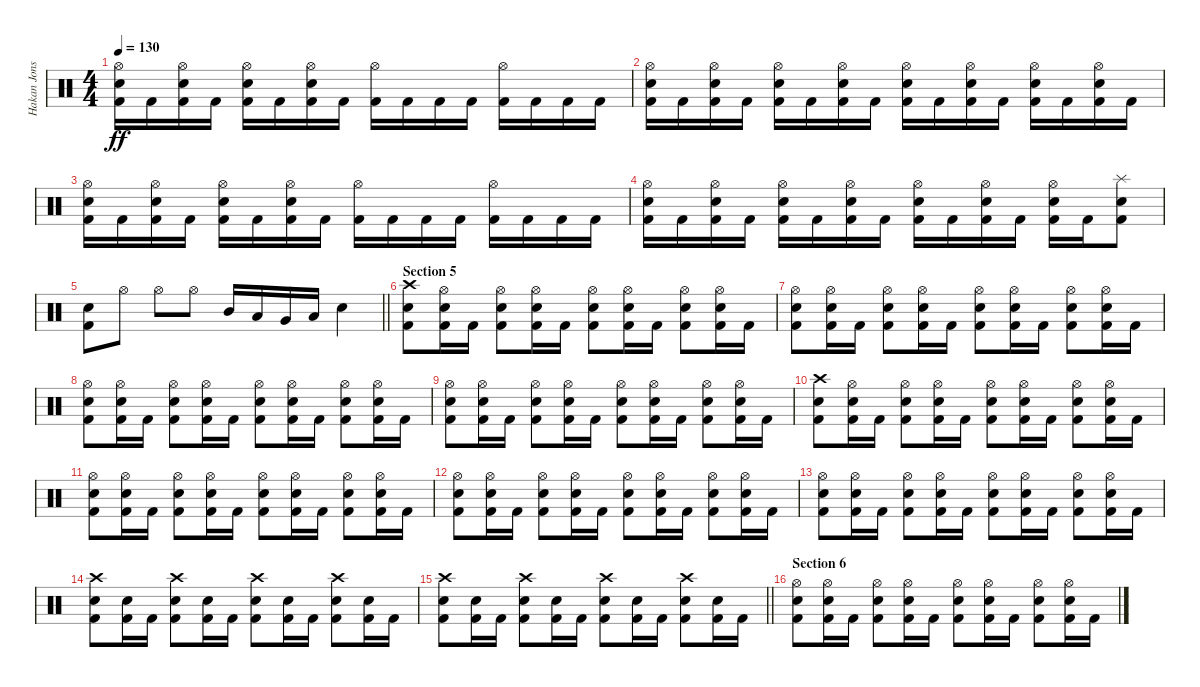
\track ("Hakan Jonsson" "Hakan Jons") {instrument percussion}
\staff {score}
\articulation defaults
\ts (4 4)
\tempo 130
\clef neutral
\ks c
("Hi-Hat (open)" "Electric Snare (hit)" "Kick (hit) 2").16{dy ff} "Kick (hit) 2".16 ("Hi-Hat (open)" "Electric Snare (hit)" "Kick (hit) 2").16 "Kick (hit) 2".16 ("Hi-Hat (open)" "Electric Snare (hit)" "Kick (hit) 2").16 "Kick (hit) 2".16 ("Hi-Hat (open)" "Electric Snare (hit)" "Kick (hit) 2").16 "Kick (hit) 2".16 ("Hi-Hat (open)" "Kick (hit) 2").16 "Kick (hit) 2".16 "Kick (hit) 2".16 "Kick (hit) 2".16 ("Hi-Hat (open)" "Kick (hit) 2").16 "Kick (hit) 2".16 "Kick (hit) 2".16 "Kick (hit) 2".16 |
("Hi-Hat (open)" "Electric Snare (hit)" "Kick (hit) 2").16 "Kick (hit) 2".16 ("Hi-Hat (open)" "Electric Snare (hit)" "Kick (hit) 2").16 "Kick (hit) 2".16 ("Hi-Hat (open)" "Electric Snare (hit)" "Kick (hit) 2").16 "Kick (hit) 2".16 ("Hi-Hat (open)" "Electric Snare (hit)" "Kick (hit) 2").16 "Kick (hit) 2".16 ("Hi-Hat (open)" "Electric Snare (hit)" "Kick (hit) 2").16 "Kick (hit) 2".16 ("Hi-Hat (open)" "Electric Snare (hit)" "Kick (hit) 2").16 "Kick (hit) 2".16 ("Hi-Hat (open)" "Electric Snare (hit)" "Kick (hit) 2").16 "Kick (hit) 2".16 ("Hi-Hat (open)" "Electric Snare (hit)" "Kick (hit) 2").16 "Kick (hit) 2".16 |
("Hi-Hat (open)" "Electric Snare (hit)" "Kick (hit) 2").16 "Kick (hit) 2".16 ("Hi-Hat (open)" "Electric Snare (hit)" "Kick (hit) 2").16 "Kick (hit) 2".16 ("Hi-Hat (open)" "Electric Snare (hit)" "Kick (hit) 2").16 "Kick (hit) 2".16 ("Hi-Hat (open)" "Electric Snare (hit)" "Kick (hit) 2").16 "Kick (hit) 2".16 ("Hi-Hat (open)" "Kick (hit) 2").16 "Kick (hit) 2".16 "Kick (hit) 2".16 "Kick (hit) 2".16 ("Hi-Hat (open)" "Kick (hit) 2").16 "Kick (hit) 2".16 "Kick (hit) 2".16 "Kick (hit) 2".16 |
("Hi-Hat (open)" "Electric Snare (hit)" "Kick (hit) 2").16 "Kick (hit) 2".16 ("Hi-Hat (open)" "Electric Snare (hit)" "Kick (hit) 2").16 "Kick (hit) 2".16 ("Hi-Hat (open)" "Electric Snare (hit)" "Kick (hit) 2").16 "Kick (hit) 2".16 ("Hi-Hat (open)" "Electric Snare (hit)" "Kick (hit) 2").16 "Kick (hit) 2".16 ("Hi-Hat (open)" "Electric Snare (hit)" "Kick (hit) 2").16 "Kick (hit) 2".16 ("Hi-Hat (open)" "Electric Snare (hit)" "Kick (hit) 2").16 "Kick (hit) 2".16 ("Hi-Hat (open)" "Electric Snare (hit)" "Kick (hit) 2").16 "Kick (hit) 2".16 ("Splash (hit)" "Electric Snare (hit)" "Kick (hit) 2").8 |
\barLineRight lightlight
("Electric Snare (hit)" "Kick (hit) 2").8 "Hi-Hat (open)".8 "Hi-Hat (open)".8 "Hi-Hat (open)".8 "Mid Tom (hit)".16 "Low Tom (hit)".16 "Very Low Tom (hit)".16 "Low Floor Tom (hit)".16 "Electric Snare (hit)".4 |
\section ("" "Section 5")
("Crash high (hit)" "Electric Snare (hit)" "Kick (hit) 2").8 ("Hi-Hat (open)" "Electric Snare (hit)" "Kick (hit) 2").16 "Kick (hit) 2".16 ("Hi-Hat (open)" "Electric Snare (hit)" "Kick (hit) 2").8 ("Hi-Hat (open)" "Electric Snare (hit)" "Kick (hit) 2").16 "Kick (hit) 2".16 ("Hi-Hat (open)" "Electric Snare (hit)" "Kick (hit) 2").8 ("Hi-Hat (open)" "Electric Snare (hit)" "Kick (hit) 2").16 "Kick (hit) 2".16 ("Hi-Hat (open)" "Electric Snare (hit)" "Kick (hit) 2").8 ("Hi-Hat (open)" "Electric Snare (hit)" "Kick (hit) 2").16 "Kick (hit) 2".16 |
("Hi-Hat (open)" "Electric Snare (hit)" "Kick (hit) 2").8 ("Hi-Hat (open)" "Electric Snare (hit)" "Kick (hit) 2").16 "Kick (hit) 2".16 ("Hi-Hat (open)" "Electric Snare (hit)" "Kick (hit) 2").8 ("Hi-Hat (open)" "Electric Snare (hit)" "Kick (hit) 2").16 "Kick (hit) 2".16 ("Hi-Hat (open)" "Electric Snare (hit)" "Kick (hit) 2").8 ("Hi-Hat (open)" "Electric Snare (hit)" "Kick (hit) 2").16 "Kick (hit) 2".16 ("Hi-Hat (open)" "Electric Snare (hit)" "Kick (hit) 2").8 ("Hi-Hat (open)" "Electric Snare (hit)" "Kick (hit) 2").16 "Kick (hit) 2".16 |
("Hi-Hat (open)" "Electric Snare (hit)" "Kick (hit) 2").8 ("Hi-Hat (open)" "Electric Snare (hit)" "Kick (hit) 2").16 "Kick (hit) 2".16 ("Hi-Hat (open)" "Electric Snare (hit)" "Kick (hit) 2").8 ("Hi-Hat (open)" "Electric Snare (hit)" "Kick (hit) 2").16 "Kick (hit) 2".16 ("Hi-Hat (open)" "Electric Snare (hit)" "Kick (hit) 2").8 ("Hi-Hat (open)" "Electric Snare (hit)" "Kick (hit) 2").16 "Kick (hit) 2".16 ("Hi-Hat (open)" "Electric Snare (hit)" "Kick (hit) 2").8 ("Hi-Hat (open)" "Electric Snare (hit)" "Kick (hit) 2").16 "Kick (hit) 2".16 |
("Hi-Hat (open)" "Electric Snare (hit)" "Kick (hit) 2").8 ("Hi-Hat (open)" "Electric Snare (hit)" "Kick (hit) 2").16 "Kick (hit) 2".16 ("Hi-Hat (open)" "Electric Snare (hit)" "Kick (hit) 2").8 ("Hi-Hat (open)" "Electric Snare (hit)" "Kick (hit) 2").16 "Kick (hit) 2".16 ("Hi-Hat (open)" "Electric Snare (hit)" "Kick (hit) 2").8 ("Hi-Hat (open)" "Electric Snare (hit)" "Kick (hit) 2").16 "Kick (hit) 2".16 ("Hi-Hat (open)" "Electric Snare (hit)" "Kick (hit) 2").8 ("Hi-Hat (open)" "Electric Snare (hit)" "Kick (hit) 2").16 "Kick (hit) 2".16 |
("Crash high (hit)" "Electric Snare (hit)" "Kick (hit) 2").8 ("Hi-Hat (open)" "Electric Snare (hit)" "Kick (hit) 2").16 "Kick (hit) 2".16 ("Hi-Hat (open)" "Electric Snare (hit)" "Kick (hit) 2").8 ("Hi-Hat (open)" "Electric Snare (hit)" "Kick (hit) 2").16 "Kick (hit) 2".16 ("Hi-Hat (open)" "Electric Snare (hit)" "Kick (hit) 2").8 ("Hi-Hat (open)" "Electric Snare (hit)" "Kick (hit) 2").16 "Kick (hit) 2".16 ("Hi-Hat (open)" "Electric Snare (hit)" "Kick (hit) 2").8 ("Hi-Hat (open)" "Electric Snare (hit)" "Kick (hit) 2").16 "Kick (hit) 2".16 |
("Hi-Hat (open)" "Electric Snare (hit)" "Kick (hit) 2").8 ("Hi-Hat (open)" "Electric Snare (hit)" "Kick (hit) 2").16 "Kick (hit) 2".16 ("Hi-Hat (open)" "Electric Snare (hit)" "Kick (hit) 2").8 ("Hi-Hat (open)" "Electric Snare (hit)" "Kick (hit) 2").16 "Kick (hit) 2".16 ("Hi-Hat (open)" "Electric Snare (hit)" "Kick (hit) 2").8 ("Hi-Hat (open)" "Electric Snare (hit)" "Kick (hit) 2").16 "Kick (hit) 2".16 ("Hi-Hat (open)" "Electric Snare (hit)" "Kick (hit) 2").8 ("Hi-Hat (open)" "Electric Snare (hit)" "Kick (hit) 2").16 "Kick (hit) 2".16 |
("Hi-Hat (open)" "Electric Snare (hit)" "Kick (hit) 2").8 ("Hi-Hat (open)" "Electric Snare (hit)" "Kick (hit) 2").16 "Kick (hit) 2".16 ("Hi-Hat (open)" "Electric Snare (hit)" "Kick (hit) 2").8 ("Hi-Hat (open)" "Electric Snare (hit)" "Kick (hit) 2").16 "Kick (hit) 2".16 ("Hi-Hat (open)" "Electric Snare (hit)" "Kick (hit) 2").8 ("Hi-Hat (open)" "Electric Snare (hit)" "Kick (hit) 2").16 "Kick (hit) 2".16 ("Hi-Hat (open)" "Electric Snare (hit)" "Kick (hit) 2").8 ("Hi-Hat (open)" "Electric Snare (hit)" "Kick (hit) 2").16 "Kick (hit) 2".16 |
("Hi-Hat (open)" "Electric Snare (hit)" "Kick (hit) 2").8 ("Hi-Hat (open)" "Electric Snare (hit)" "Kick (hit) 2").16 "Kick (hit) 2".16 ("Hi-Hat (open)" "Electric Snare (hit)" "Kick (hit) 2").8 ("Hi-Hat (open)" "Electric Snare (hit)" "Kick (hit) 2").16 "Kick (hit) 2".16 ("Hi-Hat (open)" "Electric Snare (hit)" "Kick (hit) 2").8 ("Hi-Hat (open)" "Electric Snare (hit)" "Kick (hit) 2").16 "Kick (hit) 2".16 ("Hi-Hat (open)" "Electric Snare (hit)" "Kick (hit) 2").8 ("Hi-Hat (open)" "Electric Snare (hit)" "Kick (hit) 2").16 "Kick (hit) 2".16 |
("Crash high (hit)" "Electric Snare (hit)" "Kick (hit) 2").8 ("Electric Snare (hit)" "Kick (hit) 2").16 "Kick (hit) 2".16 ("Crash high (hit)" "Electric Snare (hit)" "Kick (hit) 2").8 ("Electric Snare (hit)" "Kick (hit) 2").16 "Kick (hit) 2".16 ("Crash high (hit)" "Electric Snare (hit)" "Kick (hit) 2").8 ("Electric Snare (hit)" "Kick (hit) 2").16 "Kick (hit) 2".16 ("Crash high (hit)" "Electric Snare (hit)" "Kick (hit) 2").8 ("Electric Snare (hit)" "Kick (hit) 2").16 "Kick (hit) 2".16 |
\barLineRight lightlight
("Crash high (hit)" "Electric Snare (hit)" "Kick (hit) 2").8 ("Electric Snare (hit)" "Kick (hit) 2").16 "Kick (hit) 2".16 ("Crash high (hit)" "Electric Snare (hit)" "Kick (hit) 2").8 ("Electric Snare (hit)" "Kick (hit) 2").16 "Kick (hit) 2".16 ("Crash high (hit)" "Electric Snare (hit)" "Kick (hit) 2").8 ("Electric Snare (hit)" "Kick (hit) 2").16 "Kick (hit) 2".16 ("Crash high (hit)" "Electric Snare (hit)" "Kick (hit) 2").8 ("Electric Snare (hit)" "Kick (hit) 2").16 "Kick (hit) 2".16 |
\section ("" "Section 6")
("Hi-Hat (open)" "Electric Snare (hit)" "Kick (hit) 2").8 ("Hi-Hat (open)" "Electric Snare (hit)" "Kick (hit) 2").16 "Kick (hit) 2".16 ("Hi-Hat (open)" "Electric Snare (hit)" "Kick (hit) 2").8 ("Hi-Hat (open)" "Electric Snare (hit)" "Kick (hit) 2").16 "Kick (hit) 2".16 ("Hi-Hat (open)" "Electric Snare (hit)" "Kick (hit) 2").8 ("Hi-Hat (open)" "Electric Snare (hit)" "Kick (hit) 2").16 "Kick (hit) 2".16 ("Hi-Hat (open)" "Electric Snare (hit)" "Kick (hit) 2").8 ("Hi-Hat (open)" "Electric Snare (hit)" "Kick (hit) 2").16 "Kick (hit) 2".16
